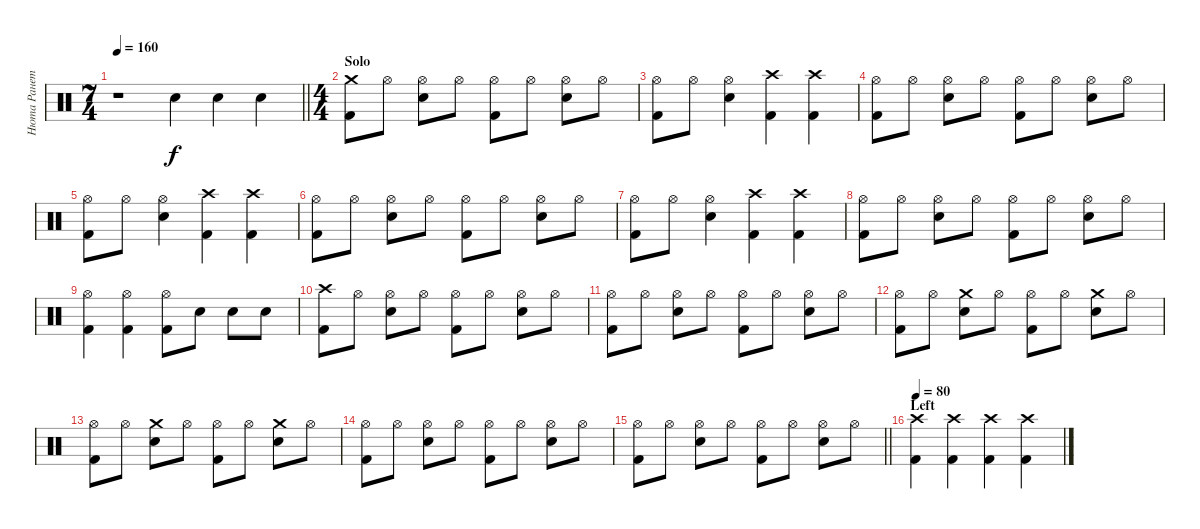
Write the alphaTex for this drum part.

\track ("Нюта Ранетка" "Нюта Ранет") {instrument percussion}
\staff {score}
\articulation defaults
\ts (7 4)
\tempo 160
\clef neutral
\barLineRight lightlight
\ks c
r.1{dy f} "Snare (hit) 2".4 "Snare (hit) 2".4 "Snare (hit) 2".4 |
\ts (4 4)
\section ("" "Solo")
("Crash medium (hit)" "Kick (hit) 2").8 "Hi-Hat (open)".8 ("Hi-Hat (open)" "Snare (hit) 2").8 "Hi-Hat (open)".8 ("Hi-Hat (open)" "Kick (hit) 2").8 "Hi-Hat (open)".8 ("Hi-Hat (open)" "Snare (hit) 2").8 "Hi-Hat (open)".8 |
("Hi-Hat (open)" "Kick (hit) 2").8 "Hi-Hat (open)".8 ("Hi-Hat (open)" "Snare (hit) 2").4 ("Crash high (hit)" "Kick (hit) 2").4 ("Crash high (hit)" "Kick (hit) 2").4 |
("Hi-Hat (open)" "Kick (hit) 2").8 "Hi-Hat (open)".8 ("Hi-Hat (open)" "Snare (hit) 2").8 "Hi-Hat (open)".8 ("Hi-Hat (open)" "Kick (hit) 2").8 "Hi-Hat (open)".8 ("Hi-Hat (open)" "Snare (hit) 2").8 "Hi-Hat (open)".8 |
("Hi-Hat (open)" "Kick (hit) 2").8 "Hi-Hat (open)".8 ("Hi-Hat (open)" "Snare (hit) 2").4 ("Crash high (hit)" "Kick (hit) 2").4 ("Crash high (hit)" "Kick (hit) 2").4 |
("Hi-Hat (open)" "Kick (hit) 2").8 "Hi-Hat (open)".8 ("Hi-Hat (open)" "Snare (hit) 2").8 "Hi-Hat (open)".8 ("Hi-Hat (open)" "Kick (hit) 2").8 "Hi-Hat (open)".8 ("Hi-Hat (open)" "Snare (hit) 2").8 "Hi-Hat (open)".8 |
("Hi-Hat (open)" "Kick (hit) 2").8 "Hi-Hat (open)".8 ("Hi-Hat (open)" "Snare (hit) 2").4 ("Crash high (hit)" "Kick (hit) 2").4 ("Crash high (hit)" "Kick (hit) 2").4 |
("Hi-Hat (open)" "Kick (hit) 2").8 "Hi-Hat (open)".8 ("Hi-Hat (open)" "Snare (hit) 2").8 "Hi-Hat (open)".8 ("Hi-Hat (open)" "Kick (hit) 2").8 "Hi-Hat (open)".8 ("Hi-Hat (open)" "Snare (hit) 2").8 "Hi-Hat (open)".8 |
("Hi-Hat (open)" "Kick (hit) 2").4 ("Hi-Hat (open)" "Kick (hit) 2").4 ("Hi-Hat (open)" "Kick (hit) 2").8 "Snare (hit) 2".8 "Snare (hit) 2".8 "Snare (hit) 2".8 |
("Crash high (hit)" "Kick (hit) 2").8 "Hi-Hat (open)".8 ("Hi-Hat (open)" "Snare (hit) 2").8 "Hi-Hat (open)".8 ("Hi-Hat (open)" "Kick (hit) 2").8 "Hi-Hat (open)".8 ("Hi-Hat (open)" "Snare (hit) 2").8 "Hi-Hat (open)".8 |
("Hi-Hat (open)" "Kick (hit) 2").8 "Hi-Hat (open)".8 ("Hi-Hat (open)" "Snare (hit) 2").8 "Hi-Hat (open)".8 ("Hi-Hat (open)" "Kick (hit) 2").8 "Hi-Hat (open)".8 ("Hi-Hat (open)" "Snare (hit) 2").8 "Hi-Hat (open)".8 |
("Hi-Hat (open)" "Kick (hit) 2").8 "Hi-Hat (open)".8 ("Crash medium (hit)" "Snare (hit) 2").8 "Hi-Hat (open)".8 ("Hi-Hat (open)" "Kick (hit) 2").8 "Hi-Hat (open)".8 ("Crash medium (hit)" "Snare (hit) 2").8 "Hi-Hat (open)".8 |
("Hi-Hat (open)" "Kick (hit) 2").8 "Hi-Hat (open)".8 ("Crash medium (hit)" "Snare (hit) 2").8 "Hi-Hat (open)".8 ("Hi-Hat (open)" "Kick (hit) 2").8 "Hi-Hat (open)".8 ("Crash medium (hit)" "Snare (hit) 2").8 "Hi-Hat (open)".8 |
("Hi-Hat (open)" "Kick (hit) 2").8 "Hi-Hat (open)".8 ("Hi-Hat (open)" "Snare (hit) 2").8 "Hi-Hat (open)".8 ("Hi-Hat (open)" "Kick (hit) 2").8 "Hi-Hat (open)".8 ("Hi-Hat (open)" "Snare (hit) 2").8 "Hi-Hat (open)".8 |
\barLineRight lightlight
("Hi-Hat (open)" "Kick (hit) 2").8 "Hi-Hat (open)".8 ("Hi-Hat (open)" "Snare (hit) 2").8 "Hi-Hat (open)".8 ("Hi-Hat (open)" "Kick (hit) 2").8 "Hi-Hat (open)".8 ("Hi-Hat (open)" "Snare (hit) 2").8 "Hi-Hat (open)".8 |
\section ("" "Left")
\tempo 80
("Crash high (hit)" "Kick (hit) 2").4 ("Crash high (hit)" "Kick (hit) 2").4 ("Crash high (hit)" "Kick (hit) 2").4 ("Crash high (hit)" "Kick (hit) 2").4
